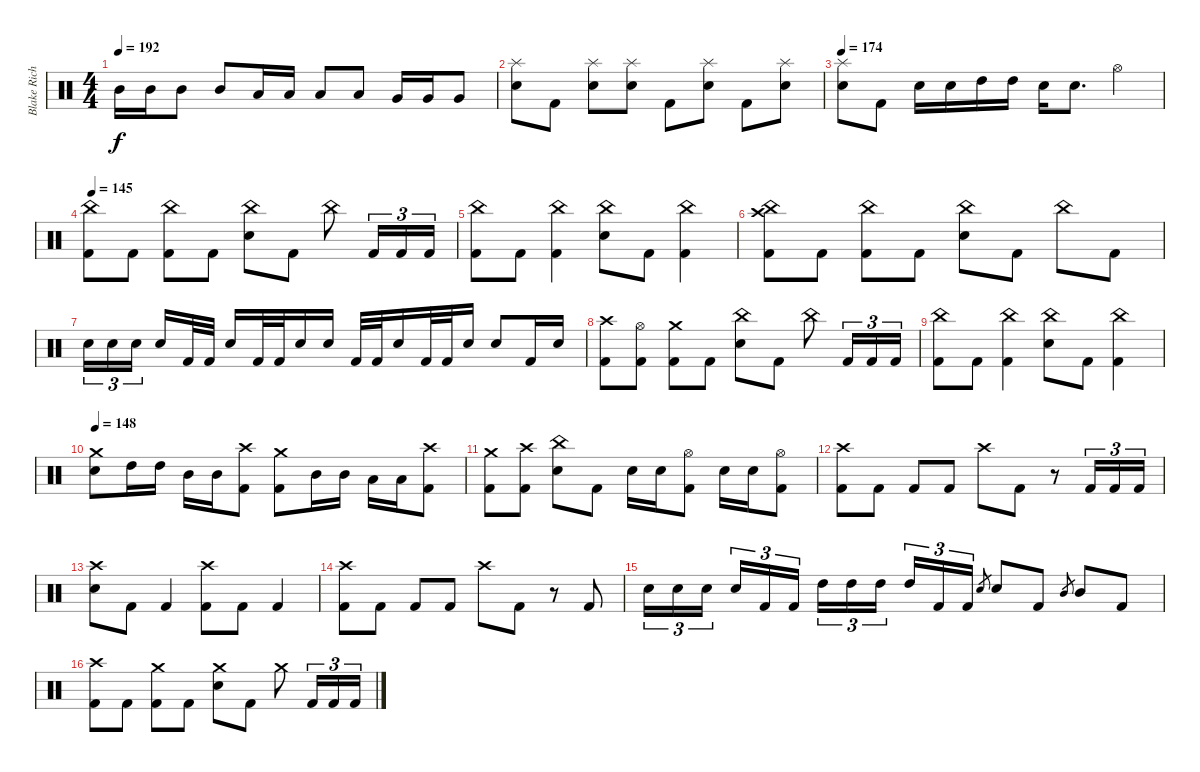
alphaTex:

\track ("Blake Richardson" "Blake Rich") {instrument percussion}
\staff {score}
\articulation defaults
\ts (4 4)
\tempo 192
\clef neutral
\ks c "Mid Tom (hit)".16{dy f} "Mid Tom (hit)".16 "Mid Tom (hit)".8 "Mid Tom (hit)".8 "Low Tom (hit)".16 "Low Tom (hit)".16 "Low Tom (hit)".8 "Low Tom (hit)".8 "Very Low Tom (hit)".16 "Very Low Tom (hit)".16 "Very Low Tom (hit)".8
|
("Splash (hit)" "Electric Snare (hit)").8 "Kick (hit) 2".8 ("Splash (hit)" "Electric Snare (hit)").8 ("Splash (hit)" "Electric Snare (hit)").8 "Kick (hit) 2".8 ("Splash (hit)" "Electric Snare (hit)").8 "Kick (hit) 2".8 ("Splash (hit)" "Electric Snare (hit)").8 |
\tempo 174
("Splash (hit)" "Electric Snare (hit)").8 "Kick (hit) 2".8 "Electric Snare (hit)".16 "Electric Snare (hit)".16 "High Tom (hit)".16 "High Tom (hit)".16 "Electric Snare (hit)".16 "Electric Snare (hit)".8{d} "Hi-Hat (open)".4 |
\tempo 145
("China (hit)" "Kick (hit) 2").8 "Kick (hit) 2".8 ("China (hit)" "Kick (hit) 2").8 "Kick (hit) 2".8 ("China (hit)" "Electric Snare (hit)").8 "Kick (hit) 2".8 "China (hit)".8 "Kick (hit) 2".16{tu (3 2)} "Kick (hit) 2".16{tu (3 2)} "Kick (hit) 2".16{tu (3 2)} |
("China (hit)" "Kick (hit) 2").8 "Kick (hit) 2".8 ("China (hit)" "Kick (hit) 2").4 ("China (hit)" "Electric Snare (hit)").8 "Kick (hit) 2".8 ("China (hit)" "Kick (hit) 2").4 |
("China (hit)" "Crash high (hit)" "Kick (hit) 2").8 "Kick (hit) 2".8 ("China (hit)" "Kick (hit) 2").8 "Kick (hit) 2".8 ("China (hit)" "Electric Snare (hit)").8 "Kick (hit) 2".8 "China (hit)".8 "Kick (hit) 2".8 |
"Electric Snare (hit)".16{tu (3 2)} "Electric Snare (hit)".16{tu (3 2)} "Electric Snare (hit)".16{tu (3 2) beam splitsecondary} "Electric Snare (hit)".16 "Kick (hit) 2".32 "Kick (hit) 2".32 "Electric Snare (hit)".16 "Kick (hit) 2".32 "Kick (hit) 2".32 "Electric Snare (hit)".16 "Electric Snare (hit)".16 "Kick (hit) 2".32 "Kick (hit) 2".32 "Electric Snare (hit)".16 "Kick (hit) 2".32 "Kick (hit) 2".32 "Electric Snare (hit)".16 "Electric Snare (hit)".8 "Kick (hit) 2".16 "Electric Snare (hit)".16 |
("Crash high (hit)" "Kick (hit) 2").8 ("Hi-Hat (open)" "Kick (hit) 2").8 ("Crash medium (hit)" "Kick (hit) 2").8 "Kick (hit) 2".8 ("China (hit)" "Electric Snare (hit)").8 "Kick (hit) 2".8 "China (hit)".8 "Kick (hit) 2".16{tu (3 2)} "Kick (hit) 2".16{tu (3 2)} "Kick (hit) 2".16{tu (3 2)} |
("China (hit)" "Kick (hit) 2").8 "Kick (hit) 2".8 ("China (hit)" "Kick (hit) 2").4 ("China (hit)" "Electric Snare (hit)").8 "Kick (hit) 2".8 ("China (hit)" "Kick (hit) 2").4 |
\tempo 148
("Crash medium (hit)" "Electric Snare (hit)").8 "High Tom (hit)".16 "High Tom (hit)".16 "Mid Tom (hit)".16 "Mid Tom (hit)".16 ("Crash high (hit)" "Kick (hit) 2").8 ("Crash medium (hit)" "Kick (hit) 2").8 "Mid Tom (hit)".16 "Mid Tom (hit)".16 "Low Tom (hit)".16 "Low Tom (hit)".16 ("Crash high (hit)" "Kick (hit) 2").8 |
("Crash medium (hit)" "Kick (hit) 2").8 ("Crash high (hit)" "Kick (hit) 2").8 ("China (hit)" "Electric Snare (hit)").8 "Kick (hit) 2".8 "Electric Snare (hit)".16 "Electric Snare (hit)".16 ("Hi-Hat (open)" "Kick (hit) 2").8 "Electric Snare (hit)".16 "Electric Snare (hit)".16 ("Hi-Hat (open)" "Kick (hit) 2").8 |
("Crash high (hit)" "Kick (hit) 2").8 "Kick (hit) 2".8 "Kick (hit) 2".8 "Kick (hit) 2".8 "Crash high (hit)".8 "Kick (hit) 2".8 r.8 "Kick (hit) 2".16{tu (3 2)} "Kick (hit) 2".16{tu (3 2)} "Kick (hit) 2".16{tu (3 2)} |
("Crash high (hit)" "Electric Snare (hit)").8 "Kick (hit) 2".8 "Kick (hit) 2".4 ("Crash high (hit)" "Kick (hit) 2").8 "Kick (hit) 2".8 "Kick (hit) 2".4 |
("Crash high (hit)" "Kick (hit) 2").8 "Kick (hit) 2".8 "Kick (hit) 2".8 "Kick (hit) 2".8 "Crash high (hit)".8 "Kick (hit) 2".8 r.8 "Kick (hit) 2".8 |
"Electric Snare (hit)".16{tu (3 2)} "Electric Snare (hit)".16{tu (3 2)} "Electric Snare (hit)".16{tu (3 2) beam splitsecondary} "Electric Snare (hit)".16{tu (3 2)} "Kick (hit) 2".16{tu (3 2)} "Kick (hit) 2".16{tu (3 2)} "High Tom (hit)".16{tu (3 2)} "High Tom (hit)".16{tu (3 2)} "High Tom (hit)".16{tu (3 2) beam splitsecondary} "High Tom (hit)".16{tu (3 2)} "Kick (hit) 2".16{tu (3 2)} "Kick (hit) 2".16{tu (3 2)} "Electric Snare (hit)".8{gr} "Electric Snare (hit)".8 "Kick (hit) 2".8 "Mid Tom (hit)".8{gr} "Mid Tom (hit)".8 "Kick (hit) 2".8 |
("Crash high (hit)" "Kick (hit) 2").8 "Kick (hit) 2".8 ("Crash medium (hit)" "Kick (hit) 2").8 "Kick (hit) 2".8 ("Crash medium (hit)" "Electric Snare (hit)").8 "Kick (hit) 2".8 "Crash medium (hit)".8 "Kick (hit) 2".16{tu (3 2)} "Kick (hit) 2".16{tu (3 2)} "Kick (hit) 2".16{tu (3 2)}
